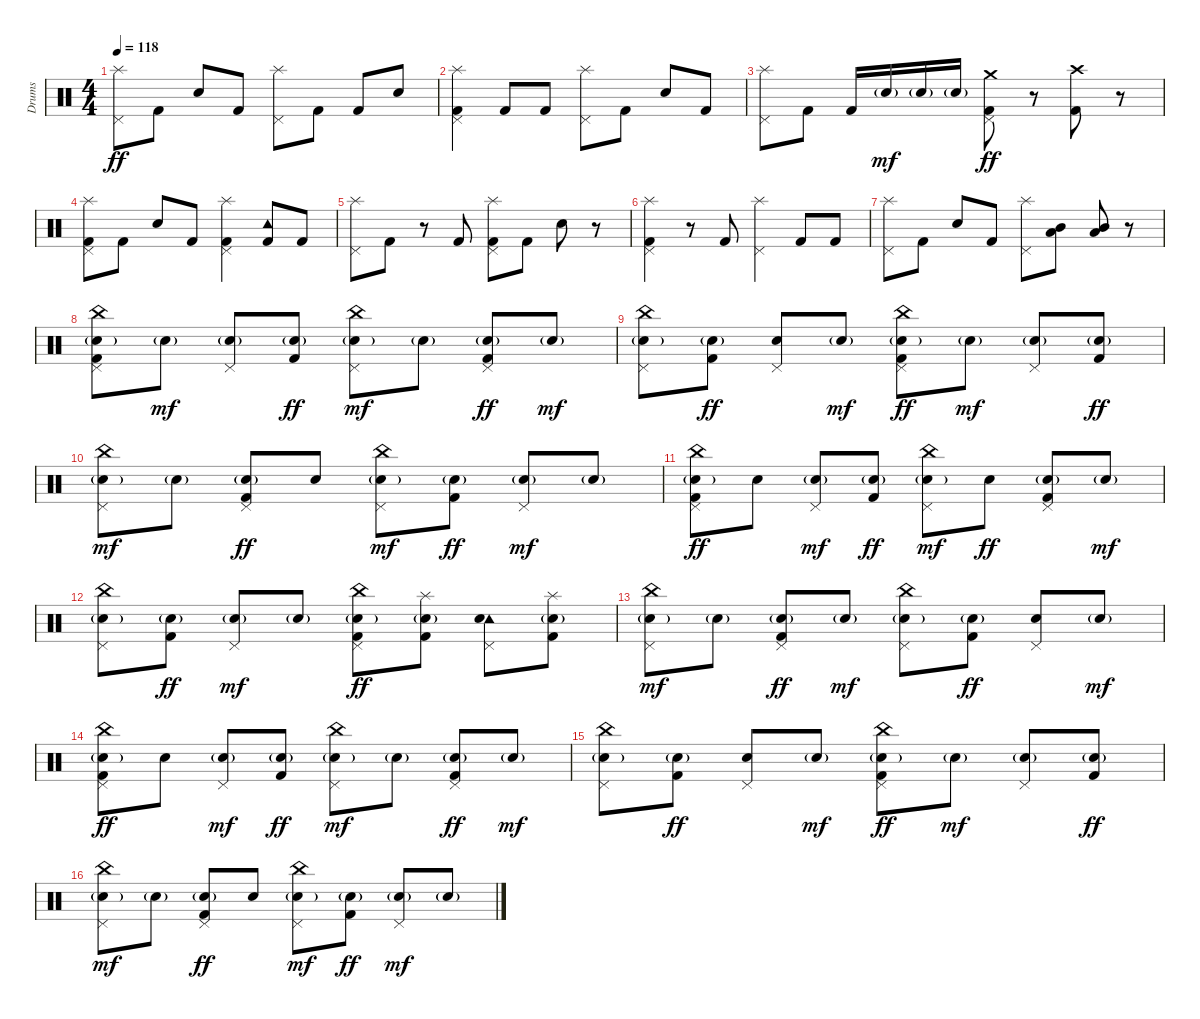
\track ("Drums" "Drums") {instrument percussion}
\staff {score}
\articulation defaults
\ts (4 4)
\tempo 118
\clef neutral
\ks c
("Splash (hit)" "Pedal Hi-Hat (hit)").8{dy ff} "Kick (hit) 2".8 "Electric Snare (hit)".8 "Kick (hit) 2".8 ("Splash (hit)" "Pedal Hi-Hat (hit)").8 "Kick (hit) 2".8 "Kick (hit) 2".8 "Electric Snare (hit)".8 |
("Splash (hit)" "Pedal Hi-Hat (hit)" "Kick (hit) 2").4 "Kick (hit) 2".8 "Kick (hit) 2".8 ("Splash (hit)" "Pedal Hi-Hat (hit)").8 "Kick (hit) 2".8 "Electric Snare (hit)".8 "Kick (hit) 2".8 |
("Splash (hit)" "Pedal Hi-Hat (hit)").8 "Kick (hit) 2".8 "Kick (hit) 2".16 "Electric Snare (hit)"{g}.16{dy mf} "Electric Snare (hit)"{g}.16 "Electric Snare (hit)"{g}.16 ("Crash medium (hit)" "Pedal Hi-Hat (hit)" "Kick (hit) 2").8{dy ff} r.8 ("Crash high (hit)" "Kick (hit) 2").8 r.8 |
("Splash (hit)" "Pedal Hi-Hat (hit)" "Kick (hit) 2").8 "Kick (hit) 2".8 "Electric Snare (hit)".8 "Kick (hit) 2".8 ("Splash (hit)" "Pedal Hi-Hat (hit)" "Kick (hit) 2").4 ("Tambourine (hit)" "Kick (hit) 2").8 "Kick (hit) 2".8 |
("Splash (hit)" "Pedal Hi-Hat (hit)").8 "Kick (hit) 2".8 r.8 "Kick (hit) 2".8 ("Splash (hit)" "Pedal Hi-Hat (hit)" "Kick (hit) 2").8 "Kick (hit) 2".8 "Electric Snare (hit)".8 r.8 |
("Splash (hit)" "Pedal Hi-Hat (hit)" "Kick (hit) 2").4 r.8 "Kick (hit) 2".8 ("Splash (hit)" "Pedal Hi-Hat (hit)").4 "Kick (hit) 2".8 "Kick (hit) 2".8 |
("Splash (hit)" "Pedal Hi-Hat (hit)").8 "Kick (hit) 2".8 "Electric Snare (hit)".8 "Kick (hit) 2".8 ("Splash (hit)" "Pedal Hi-Hat (hit)").8 ("Mid Tom (hit)" "Low Floor Tom (hit)").8 ("Mid Tom (hit)" "Low Floor Tom (hit)").8 r.8 |
\section ("" "")
("China (hit)" "Pedal Hi-Hat (hit)" "Electric Snare (hit)"{g} "Kick (hit) 2").8 "Electric Snare (hit)"{g}.8{dy mf} ("Pedal Hi-Hat (hit)" "Electric Snare (hit)"{g}).8 ("Electric Snare (hit)"{g} "Kick (hit) 2").8{dy ff} ("China (hit)" "Pedal Hi-Hat (hit)" "Electric Snare (hit)"{g}).8{dy mf} "Electric Snare (hit)"{g}.8 ("Pedal Hi-Hat (hit)" "Electric Snare (hit)"{g} "Kick (hit) 2").8{dy ff} "Electric Snare (hit)"{g}.8{dy mf} |
("China (hit)" "Pedal Hi-Hat (hit)" "Electric Snare (hit)"{g}).8 ("Electric Snare (hit)"{g} "Kick (hit) 2").8{dy ff} ("Pedal Hi-Hat (hit)" "Electric Snare (hit)").8 "Electric Snare (hit)"{g}.8{dy mf} ("China (hit)" "Pedal Hi-Hat (hit)" "Electric Snare (hit)"{g} "Kick (hit) 2").8{dy ff} "Electric Snare (hit)"{g}.8{dy mf} ("Pedal Hi-Hat (hit)" "Electric Snare (hit)"{g}).8 ("Electric Snare (hit)"{g} "Kick (hit) 2").8{dy ff} |
("China (hit)" "Pedal Hi-Hat (hit)" "Electric Snare (hit)"{g}).8{dy mf} "Electric Snare (hit)"{g}.8 ("Pedal Hi-Hat (hit)" "Electric Snare (hit)"{g} "Kick (hit) 2").8{dy ff} "Electric Snare (hit)".8 ("China (hit)" "Pedal Hi-Hat (hit)" "Electric Snare (hit)"{g}).8{dy mf} ("Electric Snare (hit)"{g} "Kick (hit) 2").8{dy ff} ("Pedal Hi-Hat (hit)" "Electric Snare (hit)"{g}).8{dy mf} "Electric Snare (hit)"{g}.8 |
("China (hit)" "Pedal Hi-Hat (hit)" "Electric Snare (hit)"{g} "Kick (hit) 2").8{dy ff} "Electric Snare (hit)".8 ("Pedal Hi-Hat (hit)" "Electric Snare (hit)"{g}).8{dy mf} ("Electric Snare (hit)"{g} "Kick (hit) 2").8{dy ff} ("China (hit)" "Pedal Hi-Hat (hit)" "Electric Snare (hit)"{g}).8{dy mf} "Electric Snare (hit)".8{dy ff} ("Pedal Hi-Hat (hit)" "Electric Snare (hit)"{g} "Kick (hit) 2").8 "Electric Snare (hit)"{g}.8{dy mf} |
("China (hit)" "Pedal Hi-Hat (hit)" "Electric Snare (hit)"{g}).8 ("Electric Snare (hit)"{g} "Kick (hit) 2").8{dy ff} ("Pedal Hi-Hat (hit)" "Electric Snare (hit)"{g}).8{dy mf} "Electric Snare (hit)"{g}.8 ("China (hit)" "Pedal Hi-Hat (hit)" "Electric Snare (hit)"{g} "Kick (hit) 2").8{dy ff} ("Splash (hit)" "Electric Snare (hit)"{g} "Kick (hit) 2").8 ("Tambourine (hit)" "Pedal Hi-Hat (hit)" "Electric Snare (hit)").8 ("Splash (hit)" "Electric Snare (hit)"{g} "Kick (hit) 2").8 |
("China (hit)" "Pedal Hi-Hat (hit)" "Electric Snare (hit)"{g}).8{dy mf} "Electric Snare (hit)"{g}.8 ("Pedal Hi-Hat (hit)" "Electric Snare (hit)"{g} "Kick (hit) 2").8{dy ff} "Electric Snare (hit)"{g}.8{dy mf} ("China (hit)" "Pedal Hi-Hat (hit)" "Electric Snare (hit)"{g}).8 ("Electric Snare (hit)"{g} "Kick (hit) 2").8{dy ff} ("Pedal Hi-Hat (hit)" "Electric Snare (hit)").8 "Electric Snare (hit)"{g}.8{dy mf} |
("China (hit)" "Pedal Hi-Hat (hit)" "Electric Snare (hit)"{g} "Kick (hit) 2").8{dy ff} "Electric Snare (hit)".8 ("Pedal Hi-Hat (hit)" "Electric Snare (hit)"{g}).8{dy mf} ("Electric Snare (hit)"{g} "Kick (hit) 2").8{dy ff} ("China (hit)" "Pedal Hi-Hat (hit)" "Electric Snare (hit)"{g}).8{dy mf} "Electric Snare (hit)"{g}.8 ("Pedal Hi-Hat (hit)" "Electric Snare (hit)"{g} "Kick (hit) 2").8{dy ff} "Electric Snare (hit)"{g}.8{dy mf} |
("China (hit)" "Pedal Hi-Hat (hit)" "Electric Snare (hit)"{g}).8 ("Electric Snare (hit)"{g} "Kick (hit) 2").8{dy ff} ("Pedal Hi-Hat (hit)" "Electric Snare (hit)").8 "Electric Snare (hit)"{g}.8{dy mf} ("China (hit)" "Pedal Hi-Hat (hit)" "Electric Snare (hit)"{g} "Kick (hit) 2").8{dy ff} "Electric Snare (hit)"{g}.8{dy mf} ("Pedal Hi-Hat (hit)" "Electric Snare (hit)"{g}).8 ("Electric Snare (hit)"{g} "Kick (hit) 2").8{dy ff} |
("China (hit)" "Pedal Hi-Hat (hit)" "Electric Snare (hit)"{g}).8{dy mf} "Electric Snare (hit)"{g}.8 ("Pedal Hi-Hat (hit)" "Electric Snare (hit)"{g} "Kick (hit) 2").8{dy ff} "Electric Snare (hit)".8 ("China (hit)" "Pedal Hi-Hat (hit)" "Electric Snare (hit)"{g}).8{dy mf} ("Electric Snare (hit)"{g} "Kick (hit) 2").8{dy ff} ("Pedal Hi-Hat (hit)" "Electric Snare (hit)"{g}).8{dy mf} "Electric Snare (hit)"{g}.8
